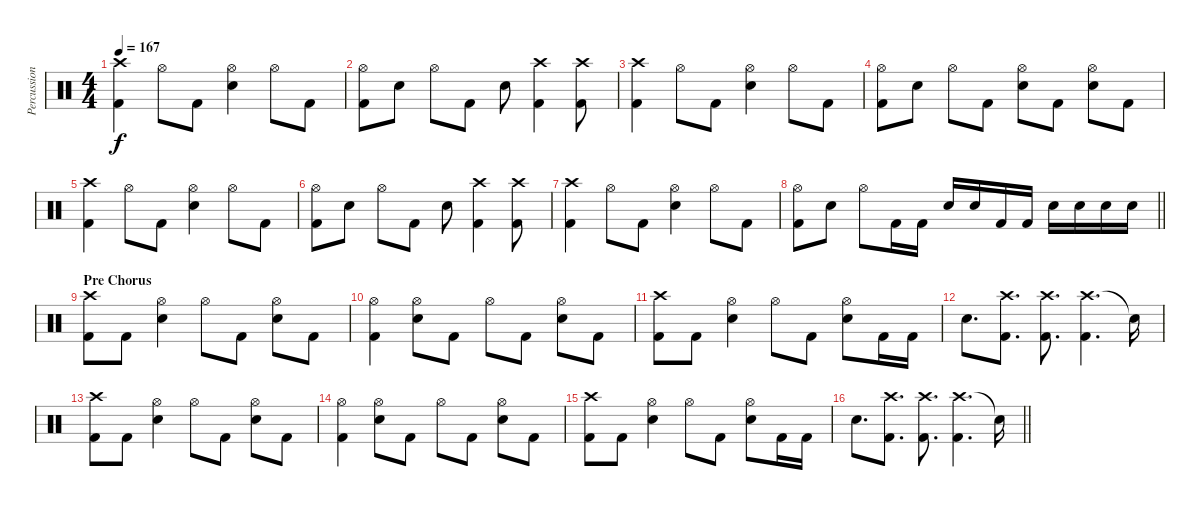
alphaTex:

\track ("Percussion" "Percussion") {instrument percussion}
\staff {score}
\articulation defaults
\ts (4 4)
\tempo 167
\clef neutral
\ks c
("Crash high (hit)" "Kick (hit) 2").4{dy f} "Hi-Hat (open)".8 "Kick (hit) 2".8 ("Hi-Hat (open)" "Snare (hit) 2").4 "Hi-Hat (open)".8 "Kick (hit) 2".8 |
("Hi-Hat (open)" "Kick (hit) 2").8 "Snare (hit) 2".8 "Hi-Hat (open)".8 "Kick (hit) 2".8 "Snare (hit) 2".8 ("Crash high (hit)" "Kick (hit) 2").4 ("Crash high (hit)" "Kick (hit) 2").8 |
("Crash high (hit)" "Kick (hit) 2").4 "Hi-Hat (open)".8 "Kick (hit) 2".8 ("Hi-Hat (open)" "Snare (hit) 2").4 "Hi-Hat (open)".8 "Kick (hit) 2".8 |
("Hi-Hat (open)" "Kick (hit) 2").8 "Snare (hit) 2".8 "Hi-Hat (open)".8 "Kick (hit) 2".8 ("Hi-Hat (open)" "Snare (hit) 2").8 "Kick (hit) 2".8 ("Hi-Hat (open)" "Snare (hit) 2").8 "Kick (hit) 2".8 |
("Crash high (hit)" "Kick (hit) 2").4 "Hi-Hat (open)".8 "Kick (hit) 2".8 ("Hi-Hat (open)" "Snare (hit) 2").4 "Hi-Hat (open)".8 "Kick (hit) 2".8 |
("Hi-Hat (open)" "Kick (hit) 2").8 "Snare (hit) 2".8 "Hi-Hat (open)".8 "Kick (hit) 2".8 "Snare (hit) 2".8 ("Crash high (hit)" "Kick (hit) 2").4 ("Crash high (hit)" "Kick (hit) 2").8 |
("Crash high (hit)" "Kick (hit) 2").4 "Hi-Hat (open)".8 "Kick (hit) 2".8 ("Hi-Hat (open)" "Snare (hit) 2").4 "Hi-Hat (open)".8 "Kick (hit) 2".8 |
\barLineRight lightlight
("Hi-Hat (open)" "Kick (hit) 2").8 "Snare (hit) 2".8 "Hi-Hat (open)".8 "Kick (hit) 2".16 "Kick (hit) 2".16 "Snare (hit) 2".16 "Snare (hit) 2".16 "Kick (hit) 2".16 "Kick (hit) 2".16 "Snare (hit) 2".16 "Snare (hit) 2".16 "Snare (hit) 2".16 "Snare (hit) 2".16 |
\section ("" "Pre Chorus")
("Crash high (hit)" "Kick (hit) 2").8 "Kick (hit) 2".8 ("Hi-Hat (open)" "Snare (hit) 2").4 "Hi-Hat (open)".8 "Kick (hit) 2".8 ("Hi-Hat (open)" "Snare (hit) 2").8 "Kick (hit) 2".8 |
("Hi-Hat (open)" "Kick (hit) 2").4 ("Hi-Hat (open)" "Snare (hit) 2").8 "Kick (hit) 2".8 "Hi-Hat (open)".8 "Kick (hit) 2".8 ("Hi-Hat (open)" "Snare (hit) 2").8 "Kick (hit) 2".8 |
("Crash high (hit)" "Kick (hit) 2").8 "Kick (hit) 2".8 ("Hi-Hat (open)" "Snare (hit) 2").4 "Hi-Hat (open)".8 "Kick (hit) 2".8 ("Hi-Hat (open)" "Snare (hit) 2").8 "Kick (hit) 2".16 "Kick (hit) 2".16 |
"Snare (hit) 2".8{d} ("Crash high (hit)" "Kick (hit) 2").8{d} ("Crash high (hit)" "Kick (hit) 2").8{d} ("Crash high (hit)" "Kick (hit) 2").4{d} "Snare (hit)"{t}.16 |
("Crash high (hit)" "Kick (hit) 2").8 "Kick (hit) 2".8 ("Hi-Hat (open)" "Snare (hit) 2").4 "Hi-Hat (open)".8 "Kick (hit) 2".8 ("Hi-Hat (open)" "Snare (hit) 2").8 "Kick (hit) 2".8 |
("Hi-Hat (open)" "Kick (hit) 2").4 ("Hi-Hat (open)" "Snare (hit) 2").8 "Kick (hit) 2".8 "Hi-Hat (open)".8 "Kick (hit) 2".8 ("Hi-Hat (open)" "Snare (hit) 2").8 "Kick (hit) 2".8 |
("Crash high (hit)" "Kick (hit) 2").8 "Kick (hit) 2".8 ("Hi-Hat (open)" "Snare (hit) 2").4 "Hi-Hat (open)".8 "Kick (hit) 2".8 ("Hi-Hat (open)" "Snare (hit) 2").8 "Kick (hit) 2".16 "Kick (hit) 2".16 |
\barLineRight lightlight "Snare (hit) 2".8{d}
("Crash high (hit)" "Kick (hit) 2").8{d} ("Crash high (hit)" "Kick (hit) 2").8{d} ("Crash high (hit)" "Kick (hit) 2").4{d} "Snare (hit)"{t}.16
